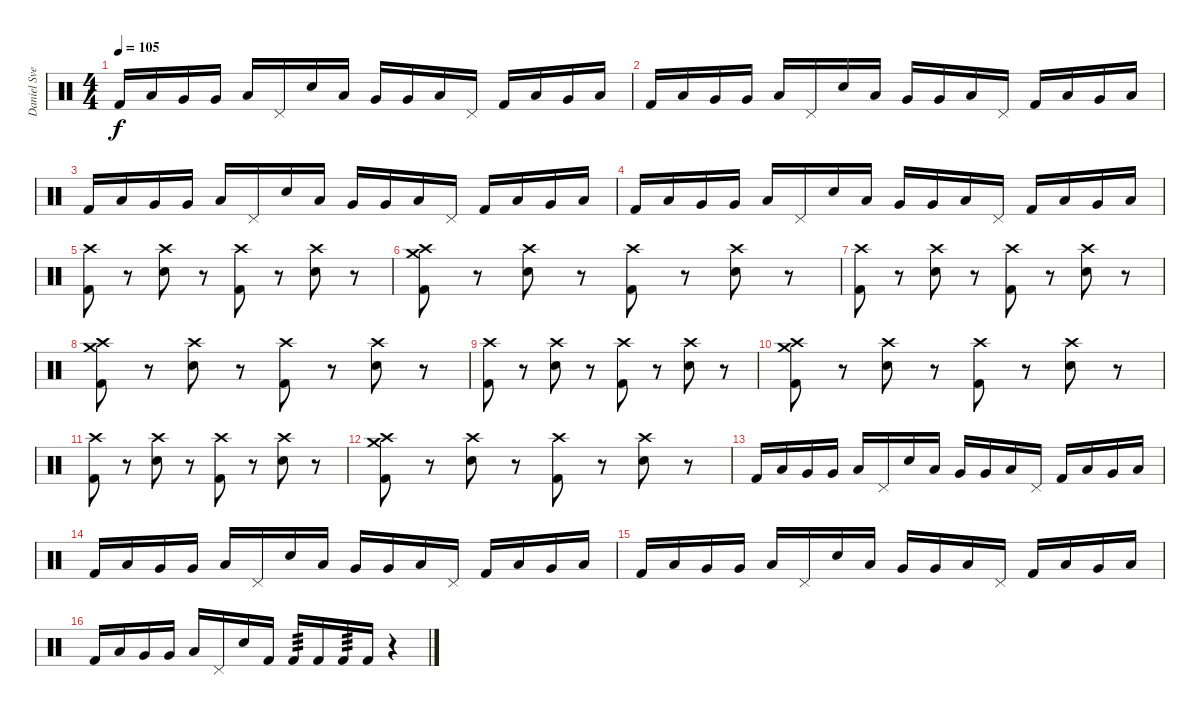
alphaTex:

\track ("Daniel Svensson" "Daniel Sve") {instrument percussion}
\staff {score}
\articulation defaults
\ts (4 4)
\tempo 105
\clef neutral
\ks c "Kick (hit) 2".16{dy f} "Low Tom (hit)".16 "Very Low Tom (hit)".16 "Very Low Tom (hit)".16 "Low Floor Tom (hit)".16 "Pedal Hi-Hat (hit)".16 "Electric Snare (hit)".16 "Low Tom (hit)".16 "Very Low Tom (hit)".16 "Very Low Tom (hit)".16 "Low Floor Tom (hit)".16 "Pedal Hi-Hat (hit)".16 "Kick (hit) 2".16 "Low Tom (hit)".16 "Very Low Tom (hit)".16 "Low Floor Tom (hit)".16
|
"Kick (hit) 2".16 "Low Tom (hit)".16 "Very Low Tom (hit)".16 "Very Low Tom (hit)".16 "Low Floor Tom (hit)".16 "Pedal Hi-Hat (hit)".16 "Electric Snare (hit)".16 "Low Tom (hit)".16 "Very Low Tom (hit)".16 "Very Low Tom (hit)".16 "Low Floor Tom (hit)".16 "Pedal Hi-Hat (hit)".16 "Kick (hit) 2".16 "Low Tom (hit)".16 "Very Low Tom (hit)".16 "Low Floor Tom (hit)".16 |
"Kick (hit) 2".16 "Low Tom (hit)".16 "Very Low Tom (hit)".16 "Very Low Tom (hit)".16 "Low Floor Tom (hit)".16 "Pedal Hi-Hat (hit)".16 "Electric Snare (hit)".16 "Low Tom (hit)".16 "Very Low Tom (hit)".16 "Very Low Tom (hit)".16 "Low Floor Tom (hit)".16 "Pedal Hi-Hat (hit)".16 "Kick (hit) 2".16 "Low Tom (hit)".16 "Very Low Tom (hit)".16 "Low Floor Tom (hit)".16 |
"Kick (hit) 2".16 "Low Tom (hit)".16 "Very Low Tom (hit)".16 "Very Low Tom (hit)".16 "Low Floor Tom (hit)".16 "Pedal Hi-Hat (hit)".16 "Electric Snare (hit)".16 "Low Tom (hit)".16 "Very Low Tom (hit)".16 "Very Low Tom (hit)".16 "Low Floor Tom (hit)".16 "Pedal Hi-Hat (hit)".16 "Kick (hit) 2".16 "Low Tom (hit)".16 "Very Low Tom (hit)".16 "Low Floor Tom (hit)".16 |
("Crash high (hit)" "Kick (hit) 2").8 r.8 ("Crash high (hit)" "Electric Snare (hit)").8 r.8 ("Crash high (hit)" "Kick (hit) 2").8 r.8 ("Crash high (hit)" "Electric Snare (hit)").8 r.8 |
("Crash high (hit)" "Crash medium (hit)" "Kick (hit) 2").8 r.8 ("Crash high (hit)" "Electric Snare (hit)").8 r.8 ("Crash high (hit)" "Kick (hit) 2").8 r.8 ("Crash high (hit)" "Electric Snare (hit)").8 r.8 |
("Crash high (hit)" "Kick (hit) 2").8 r.8 ("Crash high (hit)" "Electric Snare (hit)").8 r.8 ("Crash high (hit)" "Kick (hit) 2").8 r.8 ("Crash high (hit)" "Electric Snare (hit)").8 r.8 |
("Crash high (hit)" "Crash medium (hit)" "Kick (hit) 2").8 r.8 ("Crash high (hit)" "Electric Snare (hit)").8 r.8 ("Crash high (hit)" "Kick (hit) 2").8 r.8 ("Crash high (hit)" "Electric Snare (hit)").8 r.8 |
("Crash high (hit)" "Kick (hit) 2").8 r.8 ("Crash high (hit)" "Electric Snare (hit)").8 r.8 ("Crash high (hit)" "Kick (hit) 2").8 r.8 ("Crash high (hit)" "Electric Snare (hit)").8 r.8 |
("Crash high (hit)" "Crash medium (hit)" "Kick (hit) 2").8 r.8 ("Crash high (hit)" "Electric Snare (hit)").8 r.8 ("Crash high (hit)" "Kick (hit) 2").8 r.8 ("Crash high (hit)" "Electric Snare (hit)").8 r.8 |
("Crash high (hit)" "Kick (hit) 2").8 r.8 ("Crash high (hit)" "Electric Snare (hit)").8 r.8 ("Crash high (hit)" "Kick (hit) 2").8 r.8 ("Crash high (hit)" "Electric Snare (hit)").8 r.8 |
("Crash high (hit)" "Crash medium (hit)" "Kick (hit) 2").8 r.8 ("Crash high (hit)" "Electric Snare (hit)").8 r.8 ("Crash high (hit)" "Kick (hit) 2").8 r.8 ("Crash high (hit)" "Electric Snare (hit)").8 r.8 |
"Kick (hit) 2".16 "Low Tom (hit)".16 "Very Low Tom (hit)".16 "Very Low Tom (hit)".16 "Low Floor Tom (hit)".16 "Pedal Hi-Hat (hit)".16 "Electric Snare (hit)".16 "Low Tom (hit)".16 "Very Low Tom (hit)".16 "Very Low Tom (hit)".16 "Low Floor Tom (hit)".16 "Pedal Hi-Hat (hit)".16 "Kick (hit) 2".16 "Low Tom (hit)".16 "Very Low Tom (hit)".16 "Low Floor Tom (hit)".16 |
"Kick (hit) 2".16 "Low Tom (hit)".16 "Very Low Tom (hit)".16 "Very Low Tom (hit)".16 "Low Floor Tom (hit)".16 "Pedal Hi-Hat (hit)".16 "Electric Snare (hit)".16 "Low Tom (hit)".16 "Very Low Tom (hit)".16 "Very Low Tom (hit)".16 "Low Floor Tom (hit)".16 "Pedal Hi-Hat (hit)".16 "Kick (hit) 2".16 "Low Tom (hit)".16 "Very Low Tom (hit)".16 "Low Floor Tom (hit)".16 |
"Kick (hit) 2".16 "Low Tom (hit)".16 "Very Low Tom (hit)".16 "Very Low Tom (hit)".16 "Low Floor Tom (hit)".16 "Pedal Hi-Hat (hit)".16 "Electric Snare (hit)".16 "Low Tom (hit)".16 "Very Low Tom (hit)".16 "Very Low Tom (hit)".16 "Low Floor Tom (hit)".16 "Pedal Hi-Hat (hit)".16 "Kick (hit) 2".16 "Low Tom (hit)".16 "Very Low Tom (hit)".16 "Low Floor Tom (hit)".16 |
"Kick (hit) 2".16 "Low Tom (hit)".16 "Very Low Tom (hit)".16 "Very Low Tom (hit)".16 "Low Floor Tom (hit)".16 "Pedal Hi-Hat (hit)".16 "Electric Snare (hit)".16 "Kick (hit) 2".16 "Kick (hit) 2".16{tp 3} "Kick (hit) 2".16 "Kick (hit) 2".16{tp 3} "Kick (hit) 2".16 r.4
